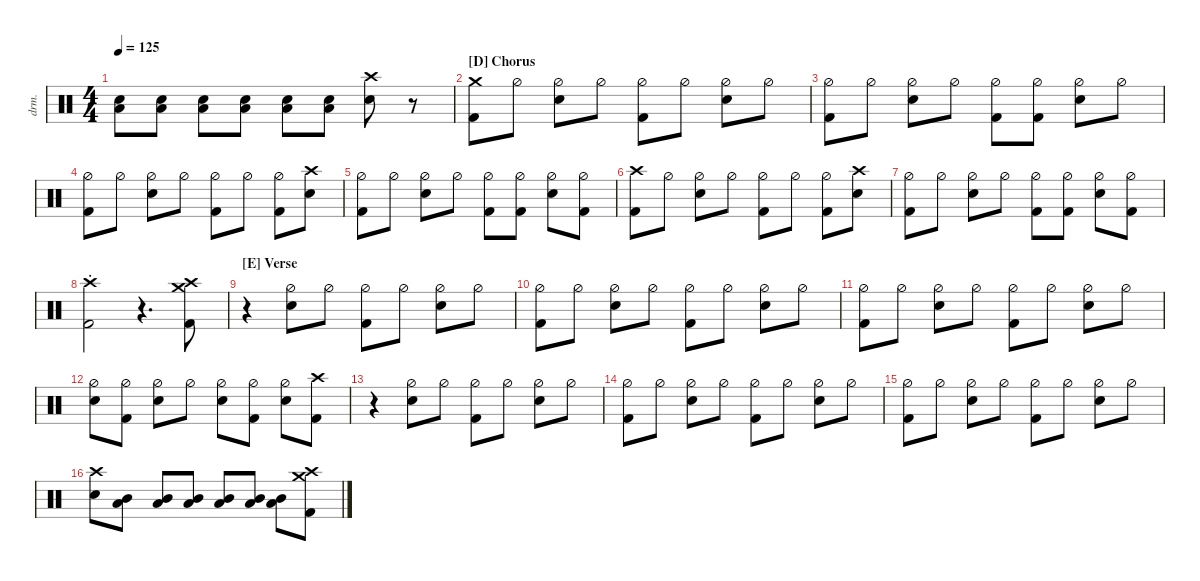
\defaultSystemsLayout 4
\hideDynamics
\bracketExtendMode nobrackets
\otherSystemsTrackNameOrientation horizontal
\track ("Drums" "drm.") {defaultSystemsLayout 4 multiBarRest instrument percussion}
\staff
\articulation defaults
\ts (4 4)
\tempo 125
\clef neutral
\ks c
("Low Tom (hit)" "Snare (hit) 2").8{dy f} ("Low Tom (hit)" "Snare (hit) 2").8 ("Low Tom (hit)" "Snare (hit) 2").8 ("Low Tom (hit)" "Snare (hit) 2").8 ("Low Tom (hit)" "Snare (hit) 2").8 ("Low Tom (hit)" "Snare (hit) 2").8 ("Snare (hit) 2" "Crash high (hit)").8 r.8 |
\section ("D" "Chorus")
("Kick (hit) 2" "Crash medium (hit)").8 "Hi-Hat (half)".8 ("Hi-Hat (half)" "Snare (hit) 2").8 "Hi-Hat (half)".8 ("Hi-Hat (half)" "Kick (hit) 2").8 "Hi-Hat (half)".8 ("Hi-Hat (half)" "Snare (hit) 2").8 "Hi-Hat (half)".8 |
("Hi-Hat (half)" "Kick (hit) 2").8 "Hi-Hat (half)".8 ("Hi-Hat (half)" "Snare (hit) 2").8 "Hi-Hat (half)".8 ("Hi-Hat (half)" "Kick (hit) 2").8 ("Hi-Hat (half)" "Kick (hit) 2").8 ("Hi-Hat (half)" "Snare (hit) 2").8 "Hi-Hat (half)".8 |
("Hi-Hat (half)" "Kick (hit) 2").8 "Hi-Hat (half)".8 ("Hi-Hat (half)" "Snare (hit) 2").8 "Hi-Hat (half)".8 ("Hi-Hat (half)" "Kick (hit) 2").8 "Hi-Hat (half)".8 ("Hi-Hat (half)" "Kick (hit) 2").8 ("Snare (hit) 2" "Crash high (hit)").8 |
("Hi-Hat (half)" "Kick (hit) 2").8 "Hi-Hat (half)".8 ("Hi-Hat (half)" "Snare (hit) 2").8 "Hi-Hat (half)".8 ("Hi-Hat (half)" "Kick (hit) 2").8 ("Hi-Hat (half)" "Kick (hit) 2").8 ("Hi-Hat (half)" "Snare (hit) 2").8 ("Hi-Hat (half)" "Kick (hit) 2").8 |
("Kick (hit) 2" "Crash high (hit)").8 "Hi-Hat (half)".8 ("Hi-Hat (half)" "Snare (hit) 2").8 "Hi-Hat (half)".8 ("Hi-Hat (half)" "Kick (hit) 2").8 "Hi-Hat (half)".8 ("Hi-Hat (half)" "Kick (hit) 2").8 ("Snare (hit) 2" "Crash high (hit)").8 |
("Hi-Hat (half)" "Kick (hit) 2").8 "Hi-Hat (half)".8 ("Hi-Hat (half)" "Snare (hit) 2").8 "Hi-Hat (half)".8 ("Hi-Hat (half)" "Kick (hit) 2").8 ("Hi-Hat (half)" "Kick (hit) 2").8 ("Hi-Hat (half)" "Snare (hit) 2").8 ("Hi-Hat (half)" "Kick (hit) 2").8 |
("Kick (hit) 2" "Crash high (hit)"{st}).2 r.4{d} ("Kick (hit) 2" "Crash high (hit)" "Crash medium (hit)").8 |
\section ("E" "Verse")
r.4 ("Snare (hit) 2" "Hi-Hat (half)").8 "Hi-Hat (half)".8 ("Hi-Hat (half)" "Kick (hit) 2").8 "Hi-Hat (half)".8 ("Hi-Hat (half)" "Snare (hit) 2").8 "Hi-Hat (half)".8 |
("Hi-Hat (half)" "Kick (hit) 2").8 "Hi-Hat (half)".8 ("Hi-Hat (half)" "Snare (hit) 2").8 "Hi-Hat (half)".8 ("Hi-Hat (half)" "Kick (hit) 2").8 "Hi-Hat (half)".8 ("Hi-Hat (half)" "Snare (hit) 2").8 "Hi-Hat (half)".8 |
("Hi-Hat (half)" "Kick (hit) 2").8 "Hi-Hat (half)".8 ("Hi-Hat (half)" "Snare (hit) 2").8 "Hi-Hat (half)".8 ("Hi-Hat (half)" "Kick (hit) 2").8 "Hi-Hat (half)".8 ("Hi-Hat (half)" "Snare (hit) 2").8 "Hi-Hat (half)".8 |
("Snare (hit) 2" "Hi-Hat (half)").8 ("Kick (hit) 2" "Hi-Hat (half)").8 ("Snare (hit) 2" "Hi-Hat (half)").8 "Hi-Hat (half)".8 ("Snare (hit) 2" "Hi-Hat (half)").8 ("Kick (hit) 2" "Hi-Hat (half)").8 ("Snare (hit) 2" "Hi-Hat (half)").8 ("Crash high (hit)" "Kick (hit) 2").8 |
r.4 ("Snare (hit) 2" "Hi-Hat (half)").8 "Hi-Hat (half)".8 ("Hi-Hat (half)" "Kick (hit) 2").8 "Hi-Hat (half)".8 ("Hi-Hat (half)" "Snare (hit) 2").8 "Hi-Hat (half)".8 |
("Hi-Hat (half)" "Kick (hit) 2").8 "Hi-Hat (half)".8 ("Hi-Hat (half)" "Snare (hit) 2").8 "Hi-Hat (half)".8 ("Hi-Hat (half)" "Kick (hit) 2").8 "Hi-Hat (half)".8 ("Hi-Hat (half)" "Snare (hit) 2").8 "Hi-Hat (half)".8 |
("Hi-Hat (half)" "Kick (hit) 2").8 "Hi-Hat (half)".8 ("Hi-Hat (half)" "Snare (hit) 2").8 "Hi-Hat (half)".8 ("Hi-Hat (half)" "Kick (hit) 2").8 "Hi-Hat (half)".8 ("Hi-Hat (half)" "Snare (hit) 2").8 "Hi-Hat (half)".8 |
("Crash high (hit)" "Snare (hit) 2").8 ("Low Tom (hit)" "Mid Tom (hit)").8{dy fff} ("Low Tom (hit)" "Mid Tom (hit)").8 ("Low Tom (hit)" "Mid Tom (hit)").8 ("Low Tom (hit)" "Mid Tom (hit)").8 ("Low Tom (hit)" "Mid Tom (hit)").8 ("Low Tom (hit)" "Mid Tom (hit)").8 ("Crash high (hit)" "Kick (hit) 2" "Crash medium (hit)").8{dy f}
